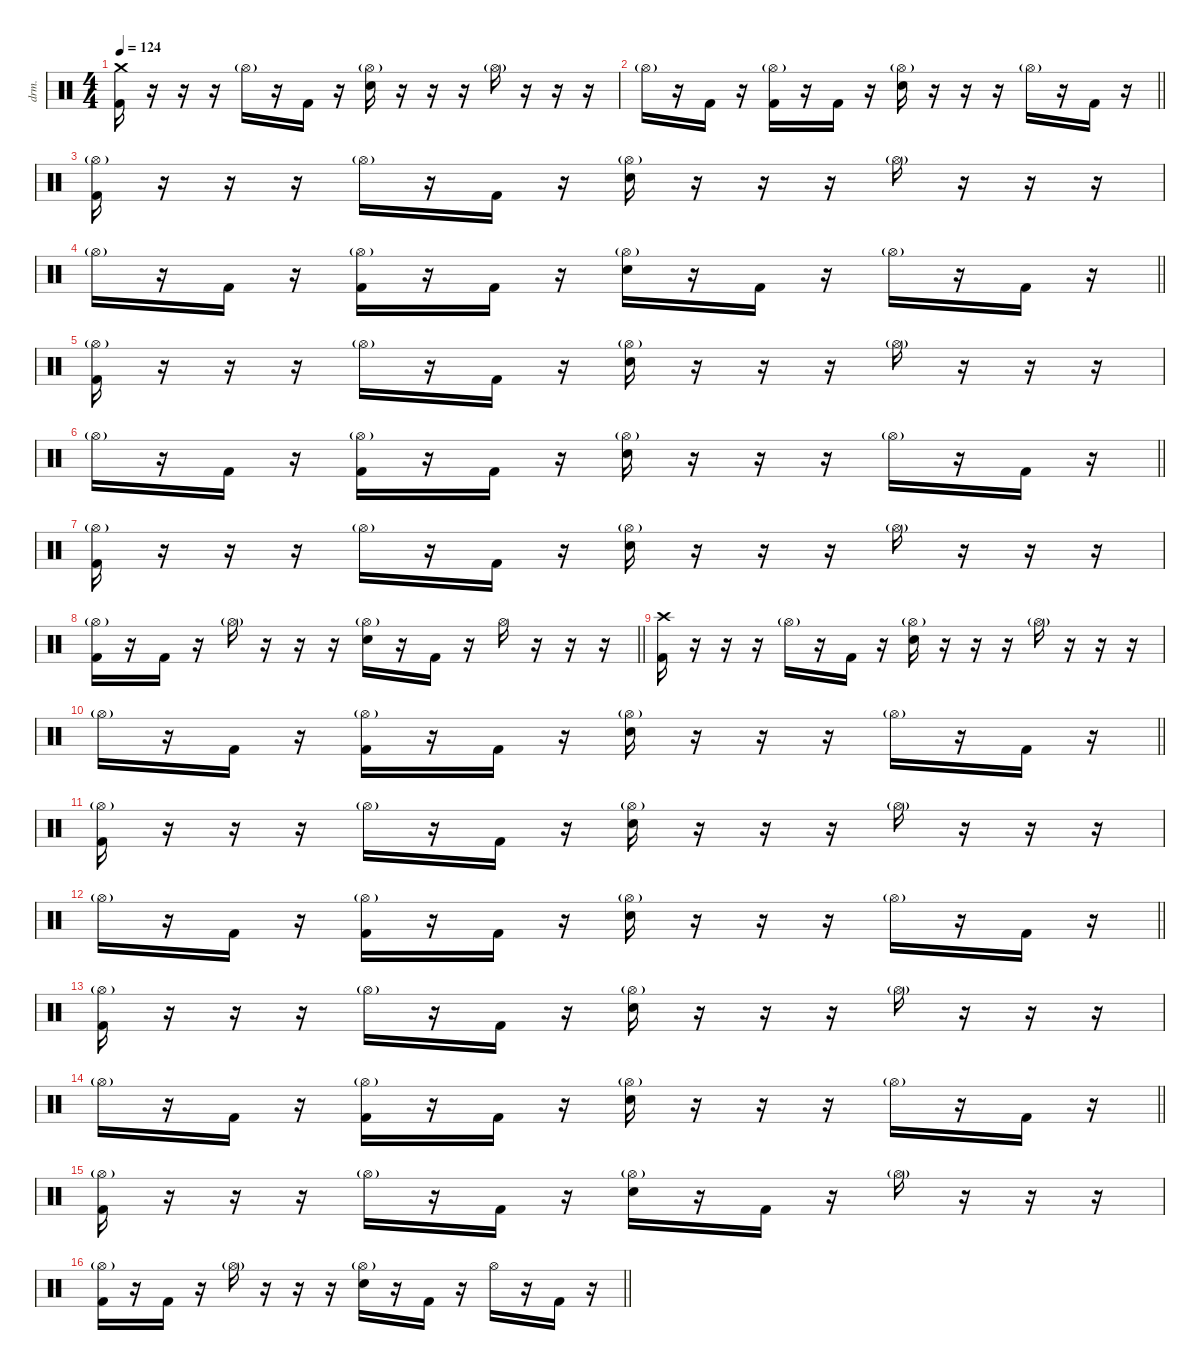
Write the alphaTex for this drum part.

\defaultSystemsLayout 4
\hideDynamics
\bracketExtendMode nobrackets
\otherSystemsTrackNameOrientation horizontal
\track ("Percussion" "drm.") {instrument percussion}
\staff {score}
\articulation defaults
\ts (4 4)
\section ("" "")
\tempo 124
\clef neutral
\ks c
("Kick (hit) 2" "Crash medium (hit)").16{dy f beam Down} r.16{beam Down} r.16{beam Down} r.16{beam Down} "Hi-Hat (open)"{g}.16{dy mf beam Down} r.16{beam Down} "Kick (hit) 2".16{dy f beam Down} r.16{beam Down} ("Snare (hit) 2" "Hi-Hat (open)"{g}).16{beam Down} r.16{beam Down} r.16{beam Down} r.16{beam Down} "Hi-Hat (open)"{g}.16{dy mf beam Down} r.16{beam Down} r.16{beam Down} r.16{beam Down} |
\barLineRight lightlight "Hi-Hat (open)"{g}.16{beam Down}
r.16{beam Down} "Kick (hit) 2".16{dy f beam Down} r.16{beam Down} ("Kick (hit) 2" "Hi-Hat (open)"{g}).16{beam Down} r.16{beam Down} "Kick (hit) 2".16{beam Down} r.16{beam Down} ("Snare (hit) 2" "Hi-Hat (open)"{g}).16{beam Down} r.16{beam Down} r.16{beam Down} r.16{beam Down} "Hi-Hat (open)"{g}.16{dy mf beam Down} r.16{beam Down} "Kick (hit) 2".16{dy f beam Down} r.16{beam Down} |
("Kick (hit) 2" "Hi-Hat (open)"{g}).16{beam Down} r.16{beam Down} r.16{beam Down} r.16{beam Down} "Hi-Hat (open)"{g}.16{dy mf beam Down} r.16{beam Down} "Kick (hit) 2".16{dy f beam Down} r.16{beam Down} ("Snare (hit) 2" "Hi-Hat (open)"{g}).16{beam Down} r.16{beam Down} r.16{beam Down} r.16{beam Down} "Hi-Hat (open)"{g}.16{dy mf beam Down} r.16{beam Down} r.16{beam Down} r.16{beam Down} |
\barLineRight lightlight "Hi-Hat (open)"{g}.16{beam Down}
r.16{beam Down} "Kick (hit) 2".16{dy f beam Down} r.16{beam Down} ("Kick (hit) 2" "Hi-Hat (open)"{g}).16{beam Down} r.16{beam Down} "Kick (hit) 2".16{beam Down} r.16{beam Down} ("Snare (hit) 2" "Hi-Hat (open)"{g}).16{beam Down} r.16{beam Down} "Kick (hit) 2".16{beam Down} r.16{beam Down} "Hi-Hat (open)"{g}.16{dy mf beam Down} r.16{beam Down} "Kick (hit) 2".16{dy f beam Down} r.16{beam Down} |
("Kick (hit) 2" "Hi-Hat (open)"{g}).16{beam Down} r.16{beam Down} r.16{beam Down} r.16{beam Down} "Hi-Hat (open)"{g}.16{dy mf beam Down} r.16{beam Down} "Kick (hit) 2".16{dy f beam Down} r.16{beam Down} ("Snare (hit) 2" "Hi-Hat (open)"{g}).16{beam Down} r.16{beam Down} r.16{beam Down} r.16{beam Down} "Hi-Hat (open)"{g}.16{dy mf beam Down} r.16{beam Down} r.16{beam Down} r.16{beam Down} |
\barLineRight lightlight "Hi-Hat (open)"{g}.16{beam Down}
r.16{beam Down} "Kick (hit) 2".16{dy f beam Down} r.16{beam Down} ("Kick (hit) 2" "Hi-Hat (open)"{g}).16{beam Down} r.16{beam Down} "Kick (hit) 2".16{beam Down} r.16{beam Down} ("Snare (hit) 2" "Hi-Hat (open)"{g}).16{beam Down} r.16{beam Down} r.16{beam Down} r.16{beam Down} "Hi-Hat (open)"{g}.16{dy mf beam Down} r.16{beam Down} "Kick (hit) 2".16{dy f beam Down} r.16{beam Down} |
("Kick (hit) 2" "Hi-Hat (open)"{g}).16{beam Down} r.16{beam Down} r.16{beam Down} r.16{beam Down} "Hi-Hat (open)"{g}.16{dy mf beam Down} r.16{beam Down} "Kick (hit) 2".16{dy f beam Down} r.16{beam Down} ("Snare (hit) 2" "Hi-Hat (open)"{g}).16{beam Down} r.16{beam Down} r.16{beam Down} r.16{beam Down} "Hi-Hat (open)"{g}.16{dy mf beam Down} r.16{beam Down} r.16{beam Down} r.16{beam Down} |
\barLineRight lightlight
("Kick (hit) 2" "Hi-Hat (open)"{g}).16{dy f beam Down} r.16{beam Down} "Kick (hit) 2".16{beam Down} r.16{beam Down} "Hi-Hat (open)"{g}.16{dy mf beam Down} r.16{beam Down} r.16{beam Down} r.16{beam Down} ("Snare (hit) 2" "Hi-Hat (open)"{g}).16{dy f beam Down} r.16{beam Down} "Kick (hit) 2".16{beam Down} r.16{beam Down} "Hi-Hat (open)".16{dy mf beam Down} r.16{beam Down} r.16{beam Down} r.16{beam Down} |
("Kick (hit) 2" "Crash high (hit)").16{dy f beam Down} r.16{beam Down} r.16{beam Down} r.16{beam Down} "Hi-Hat (open)"{g}.16{dy mf beam Down} r.16{beam Down} "Kick (hit) 2".16{dy f beam Down} r.16{beam Down} ("Snare (hit) 2" "Hi-Hat (open)"{g}).16{beam Down} r.16{beam Down} r.16{beam Down} r.16{beam Down} "Hi-Hat (open)"{g}.16{dy mf beam Down} r.16{beam Down} r.16{beam Down} r.16{beam Down} |
\barLineRight lightlight "Hi-Hat (open)"{g}.16{beam Down}
r.16{beam Down} "Kick (hit) 2".16{dy f beam Down} r.16{beam Down} ("Kick (hit) 2" "Hi-Hat (open)"{g}).16{beam Down} r.16{beam Down} "Kick (hit) 2".16{beam Down} r.16{beam Down} ("Snare (hit) 2" "Hi-Hat (open)"{g}).16{beam Down} r.16{beam Down} r.16{beam Down} r.16{beam Down} "Hi-Hat (open)"{g}.16{dy mf beam Down} r.16{beam Down} "Kick (hit) 2".16{dy f beam Down} r.16{beam Down} |
("Kick (hit) 2" "Hi-Hat (open)"{g}).16{beam Down} r.16{beam Down} r.16{beam Down} r.16{beam Down} "Hi-Hat (open)"{g}.16{dy mf beam Down} r.16{beam Down} "Kick (hit) 2".16{dy f beam Down} r.16{beam Down} ("Snare (hit) 2" "Hi-Hat (open)"{g}).16{beam Down} r.16{beam Down} r.16{beam Down} r.16{beam Down} "Hi-Hat (open)"{g}.16{dy mf beam Down} r.16{beam Down} r.16{beam Down} r.16{beam Down} |
\barLineRight lightlight "Hi-Hat (open)"{g}.16{beam Down}
r.16{beam Down} "Kick (hit) 2".16{dy f beam Down} r.16{beam Down} ("Kick (hit) 2" "Hi-Hat (open)"{g}).16{beam Down} r.16{beam Down} "Kick (hit) 2".16{beam Down} r.16{beam Down} ("Snare (hit) 2" "Hi-Hat (open)"{g}).16{beam Down} r.16{beam Down} r.16{beam Down} r.16{beam Down} "Hi-Hat (open)"{g}.16{dy mf beam Down} r.16{beam Down} "Kick (hit) 2".16{dy f beam Down} r.16{beam Down} |
("Kick (hit) 2" "Hi-Hat (open)"{g}).16{beam Down} r.16{beam Down} r.16{beam Down} r.16{beam Down} "Hi-Hat (open)"{g}.16{dy mf beam Down} r.16{beam Down} "Kick (hit) 2".16{dy f beam Down} r.16{beam Down} ("Snare (hit) 2" "Hi-Hat (open)"{g}).16{beam Down} r.16{beam Down} r.16{beam Down} r.16{beam Down} "Hi-Hat (open)"{g}.16{dy mf beam Down} r.16{beam Down} r.16{beam Down} r.16{beam Down} |
\barLineRight lightlight "Hi-Hat (open)"{g}.16{beam Down}
r.16{beam Down} "Kick (hit) 2".16{dy f beam Down} r.16{beam Down} ("Kick (hit) 2" "Hi-Hat (open)"{g}).16{beam Down} r.16{beam Down} "Kick (hit) 2".16{beam Down} r.16{beam Down} ("Snare (hit) 2" "Hi-Hat (open)"{g}).16{beam Down} r.16{beam Down} r.16{beam Down} r.16{beam Down} "Hi-Hat (open)"{g}.16{dy mf beam Down} r.16{beam Down} "Kick (hit) 2".16{dy f beam Down} r.16{beam Down} |
("Kick (hit) 2" "Hi-Hat (open)"{g}).16{beam Down} r.16{beam Down} r.16{beam Down} r.16{beam Down} "Hi-Hat (open)"{g}.16{dy mf beam Down} r.16{beam Down} "Kick (hit) 2".16{dy f beam Down} r.16{beam Down} ("Snare (hit) 2" "Hi-Hat (open)"{g}).16{beam Down} r.16{beam Down} "Kick (hit) 2".16{dy mf beam Down} r.16{beam Down} "Hi-Hat (open)"{g}.16{beam Down} r.16{beam Down} r.16{beam Down} r.16{beam Down} |
\barLineRight lightlight
("Kick (hit) 2" "Hi-Hat (open)"{g}).16{beam Down} r.16{beam Down} "Kick (hit) 2".16{dy f beam Down} r.16{beam Down} "Hi-Hat (open)"{g}.16{dy mf beam Down} r.16{beam Down} r.16{beam Down} r.16{beam Down} ("Snare (hit) 2" "Hi-Hat (open)"{g}).16{dy f beam Down} r.16{beam Down} "Kick (hit) 2".16{dy mf beam Down} r.16{beam Down} "Hi-Hat (open)".16{dy f beam Down} r.16{beam Down} "Kick (hit) 2".16{beam Down} r.16{beam Down}
